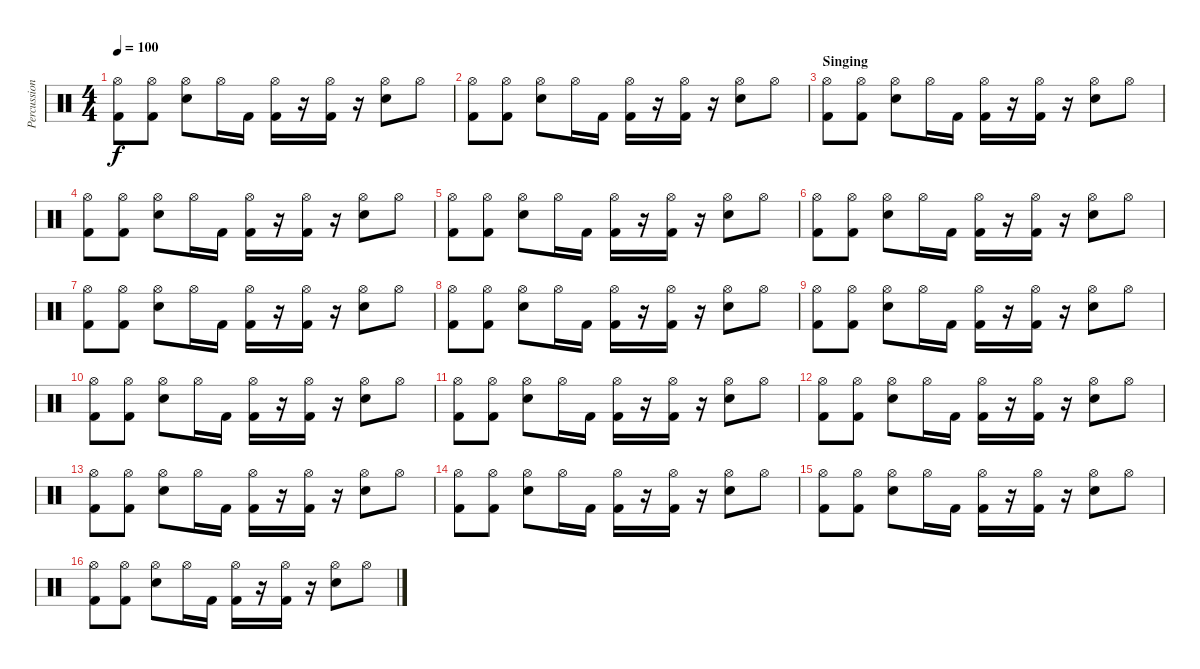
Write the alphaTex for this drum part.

\track ("Percussion" "Percussion") {instrument percussion}
\staff {score}
\articulation defaults
\ts (4 4)
\tempo 100
\clef neutral
\ks c
("Hi-Hat (open)" "Kick (hit) 2").8{dy f} ("Hi-Hat (open)" "Kick (hit) 2").8 ("Hi-Hat (open)" "Snare (hit) 2").8 "Hi-Hat (open)".16 "Kick (hit) 2".16 ("Hi-Hat (open)" "Kick (hit) 2").16 r.16 ("Hi-Hat (open)" "Kick (hit) 2").16 r.16 ("Hi-Hat (open)" "Snare (hit) 2").8 "Hi-Hat (open)".8 |
("Hi-Hat (open)" "Kick (hit) 2").8 ("Hi-Hat (open)" "Kick (hit) 2").8 ("Hi-Hat (open)" "Snare (hit) 2").8 "Hi-Hat (open)".16 "Kick (hit) 2".16 ("Hi-Hat (open)" "Kick (hit) 2").16 r.16 ("Hi-Hat (open)" "Kick (hit) 2").16 r.16 ("Hi-Hat (open)" "Snare (hit) 2").8 "Hi-Hat (open)".8 |
\section ("" "Singing")
("Hi-Hat (open)" "Kick (hit) 2").8 ("Hi-Hat (open)" "Kick (hit) 2").8 ("Hi-Hat (open)" "Snare (hit) 2").8 "Hi-Hat (open)".16 "Kick (hit) 2".16 ("Hi-Hat (open)" "Kick (hit) 2").16 r.16 ("Hi-Hat (open)" "Kick (hit) 2").16 r.16 ("Hi-Hat (open)" "Snare (hit) 2").8 "Hi-Hat (open)".8 |
("Hi-Hat (open)" "Kick (hit) 2").8 ("Hi-Hat (open)" "Kick (hit) 2").8 ("Hi-Hat (open)" "Snare (hit) 2").8 "Hi-Hat (open)".16 "Kick (hit) 2".16 ("Hi-Hat (open)" "Kick (hit) 2").16 r.16 ("Hi-Hat (open)" "Kick (hit) 2").16 r.16 ("Hi-Hat (open)" "Snare (hit) 2").8 "Hi-Hat (open)".8 |
("Hi-Hat (open)" "Kick (hit) 2").8 ("Hi-Hat (open)" "Kick (hit) 2").8 ("Hi-Hat (open)" "Snare (hit) 2").8 "Hi-Hat (open)".16 "Kick (hit) 2".16 ("Hi-Hat (open)" "Kick (hit) 2").16 r.16 ("Hi-Hat (open)" "Kick (hit) 2").16 r.16 ("Hi-Hat (open)" "Snare (hit) 2").8 "Hi-Hat (open)".8 |
("Hi-Hat (open)" "Kick (hit) 2").8 ("Hi-Hat (open)" "Kick (hit) 2").8 ("Hi-Hat (open)" "Snare (hit) 2").8 "Hi-Hat (open)".16 "Kick (hit) 2".16 ("Hi-Hat (open)" "Kick (hit) 2").16 r.16 ("Hi-Hat (open)" "Kick (hit) 2").16 r.16 ("Hi-Hat (open)" "Snare (hit) 2").8 "Hi-Hat (open)".8 |
("Hi-Hat (open)" "Kick (hit) 2").8 ("Hi-Hat (open)" "Kick (hit) 2").8 ("Hi-Hat (open)" "Snare (hit) 2").8 "Hi-Hat (open)".16 "Kick (hit) 2".16 ("Hi-Hat (open)" "Kick (hit) 2").16 r.16 ("Hi-Hat (open)" "Kick (hit) 2").16 r.16 ("Hi-Hat (open)" "Snare (hit) 2").8 "Hi-Hat (open)".8 |
("Hi-Hat (open)" "Kick (hit) 2").8 ("Hi-Hat (open)" "Kick (hit) 2").8 ("Hi-Hat (open)" "Snare (hit) 2").8 "Hi-Hat (open)".16 "Kick (hit) 2".16 ("Hi-Hat (open)" "Kick (hit) 2").16 r.16 ("Hi-Hat (open)" "Kick (hit) 2").16 r.16 ("Hi-Hat (open)" "Snare (hit) 2").8 "Hi-Hat (open)".8 |
("Hi-Hat (open)" "Kick (hit) 2").8 ("Hi-Hat (open)" "Kick (hit) 2").8 ("Hi-Hat (open)" "Snare (hit) 2").8 "Hi-Hat (open)".16 "Kick (hit) 2".16 ("Hi-Hat (open)" "Kick (hit) 2").16 r.16 ("Hi-Hat (open)" "Kick (hit) 2").16 r.16 ("Hi-Hat (open)" "Snare (hit) 2").8 "Hi-Hat (open)".8 |
("Hi-Hat (open)" "Kick (hit) 2").8 ("Hi-Hat (open)" "Kick (hit) 2").8 ("Hi-Hat (open)" "Snare (hit) 2").8 "Hi-Hat (open)".16 "Kick (hit) 2".16 ("Hi-Hat (open)" "Kick (hit) 2").16 r.16 ("Hi-Hat (open)" "Kick (hit) 2").16 r.16 ("Hi-Hat (open)" "Snare (hit) 2").8 "Hi-Hat (open)".8 |
("Hi-Hat (open)" "Kick (hit) 2").8 ("Hi-Hat (open)" "Kick (hit) 2").8 ("Hi-Hat (open)" "Snare (hit) 2").8 "Hi-Hat (open)".16 "Kick (hit) 2".16 ("Hi-Hat (open)" "Kick (hit) 2").16 r.16 ("Hi-Hat (open)" "Kick (hit) 2").16 r.16 ("Hi-Hat (open)" "Snare (hit) 2").8 "Hi-Hat (open)".8 |
("Hi-Hat (open)" "Kick (hit) 2").8 ("Hi-Hat (open)" "Kick (hit) 2").8 ("Hi-Hat (open)" "Snare (hit) 2").8 "Hi-Hat (open)".16 "Kick (hit) 2".16 ("Hi-Hat (open)" "Kick (hit) 2").16 r.16 ("Hi-Hat (open)" "Kick (hit) 2").16 r.16 ("Hi-Hat (open)" "Snare (hit) 2").8 "Hi-Hat (open)".8 |
("Hi-Hat (open)" "Kick (hit) 2").8 ("Hi-Hat (open)" "Kick (hit) 2").8 ("Hi-Hat (open)" "Snare (hit) 2").8 "Hi-Hat (open)".16 "Kick (hit) 2".16 ("Hi-Hat (open)" "Kick (hit) 2").16 r.16 ("Hi-Hat (open)" "Kick (hit) 2").16 r.16 ("Hi-Hat (open)" "Snare (hit) 2").8 "Hi-Hat (open)".8 |
("Hi-Hat (open)" "Kick (hit) 2").8 ("Hi-Hat (open)" "Kick (hit) 2").8 ("Hi-Hat (open)" "Snare (hit) 2").8 "Hi-Hat (open)".16 "Kick (hit) 2".16 ("Hi-Hat (open)" "Kick (hit) 2").16 r.16 ("Hi-Hat (open)" "Kick (hit) 2").16 r.16 ("Hi-Hat (open)" "Snare (hit) 2").8 "Hi-Hat (open)".8 |
("Hi-Hat (open)" "Kick (hit) 2").8 ("Hi-Hat (open)" "Kick (hit) 2").8 ("Hi-Hat (open)" "Snare (hit) 2").8 "Hi-Hat (open)".16 "Kick (hit) 2".16 ("Hi-Hat (open)" "Kick (hit) 2").16 r.16 ("Hi-Hat (open)" "Kick (hit) 2").16 r.16 ("Hi-Hat (open)" "Snare (hit) 2").8 "Hi-Hat (open)".8 |
("Hi-Hat (open)" "Kick (hit) 2").8 ("Hi-Hat (open)" "Kick (hit) 2").8 ("Hi-Hat (open)" "Snare (hit) 2").8 "Hi-Hat (open)".16 "Kick (hit) 2".16 ("Hi-Hat (open)" "Kick (hit) 2").16 r.16 ("Hi-Hat (open)" "Kick (hit) 2").16 r.16 ("Hi-Hat (open)" "Snare (hit) 2").8 "Hi-Hat (open)".8
